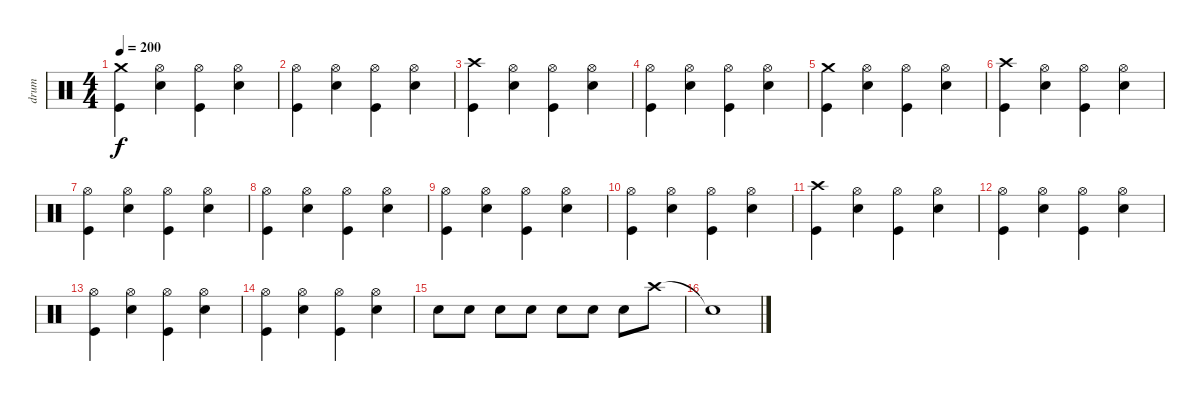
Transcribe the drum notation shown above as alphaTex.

\track ("drum" "drum") {instrument percussion}
\staff {score}
\articulation defaults
\ts (4 4)
\tempo 200
\clef neutral
\ks c
("Crash medium (hit)" "Kick (hit)").4{dy f} ("Hi-Hat (open)" "Snare (hit) 2").4 ("Hi-Hat (open)" "Kick (hit)").4 ("Hi-Hat (open)" "Snare (hit) 2").4 |
("Hi-Hat (open)" "Kick (hit)").4 ("Hi-Hat (open)" "Snare (hit) 2").4 ("Hi-Hat (open)" "Kick (hit)").4 ("Hi-Hat (open)" "Snare (hit) 2").4 |
("Crash high (hit)" "Kick (hit)").4 ("Hi-Hat (open)" "Snare (hit) 2").4 ("Hi-Hat (open)" "Kick (hit)").4 ("Hi-Hat (open)" "Snare (hit) 2").4 |
("Hi-Hat (open)" "Kick (hit)").4 ("Hi-Hat (open)" "Snare (hit) 2").4 ("Hi-Hat (open)" "Kick (hit)").4 ("Hi-Hat (open)" "Snare (hit) 2").4 |
("Crash medium (hit)" "Kick (hit)").4 ("Hi-Hat (open)" "Snare (hit) 2").4 ("Hi-Hat (open)" "Kick (hit)").4 ("Hi-Hat (open)" "Snare (hit) 2").4 |
("Crash high (hit)" "Kick (hit)").4 ("Hi-Hat (open)" "Snare (hit) 2").4 ("Hi-Hat (open)" "Kick (hit)").4 ("Hi-Hat (open)" "Snare (hit) 2").4 |
("Hi-Hat (open)" "Kick (hit)").4 ("Hi-Hat (open)" "Snare (hit) 2").4 ("Hi-Hat (open)" "Kick (hit)").4 ("Hi-Hat (open)" "Snare (hit) 2").4 |
("Hi-Hat (open)" "Kick (hit)").4 ("Hi-Hat (open)" "Snare (hit) 2").4 ("Hi-Hat (open)" "Kick (hit)").4 ("Hi-Hat (open)" "Snare (hit) 2").4 |
("Hi-Hat (open)" "Kick (hit)").4 ("Hi-Hat (open)" "Snare (hit) 2").4 ("Hi-Hat (open)" "Kick (hit)").4 ("Hi-Hat (open)" "Snare (hit) 2").4 |
("Hi-Hat (open)" "Kick (hit)").4 ("Hi-Hat (open)" "Snare (hit) 2").4 ("Hi-Hat (open)" "Kick (hit)").4 ("Hi-Hat (open)" "Snare (hit) 2").4 |
("Crash high (hit)" "Kick (hit)").4 ("Hi-Hat (open)" "Snare (hit) 2").4 ("Hi-Hat (open)" "Kick (hit)").4 ("Hi-Hat (open)" "Snare (hit) 2").4 |
("Hi-Hat (open)" "Kick (hit)").4 ("Hi-Hat (open)" "Snare (hit) 2").4 ("Hi-Hat (open)" "Kick (hit)").4 ("Hi-Hat (open)" "Snare (hit) 2").4 |
("Hi-Hat (open)" "Kick (hit)").4 ("Hi-Hat (open)" "Snare (hit) 2").4 ("Hi-Hat (open)" "Kick (hit)").4 ("Hi-Hat (open)" "Snare (hit) 2").4 |
("Hi-Hat (open)" "Kick (hit)").4 ("Hi-Hat (open)" "Snare (hit) 2").4 ("Hi-Hat (open)" "Kick (hit)").4 ("Hi-Hat (open)" "Snare (hit) 2").4 |
"Snare (hit) 2".8 "Snare (hit) 2".8 "Snare (hit) 2".8 "Snare (hit) 2".8 "Snare (hit) 2".8 "Snare (hit) 2".8 "Snare (hit) 2".8 "Crash high (hit)".8 |
"Snare (hit)"{t}.1
